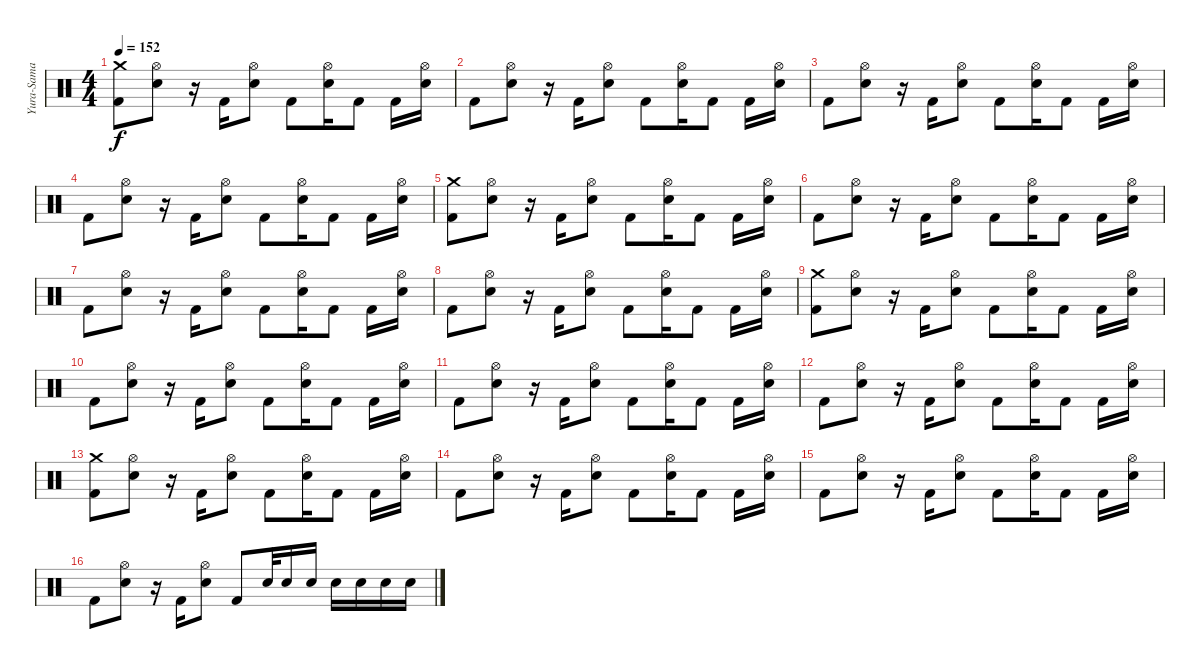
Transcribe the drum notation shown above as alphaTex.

\track ("Yura-Sama" "Yura-Sama") {instrument percussion}
\staff {score}
\articulation defaults
\ts (4 4)
\tempo 152
\clef neutral
\ks c
("Kick (hit) 2" "Crash medium (hit)").8{dy f} ("Electric Snare (hit)" "Hi-Hat (open)").8 r.16 "Kick (hit) 2".16 ("Electric Snare (hit)" "Hi-Hat (open)").8 "Kick (hit) 2".8 ("Electric Snare (hit)" "Hi-Hat (open)").16 "Kick (hit) 2".8 "Kick (hit) 2".16 ("Electric Snare (hit)" "Hi-Hat (open)").16 |
"Kick (hit) 2".8 ("Electric Snare (hit)" "Hi-Hat (open)").8 r.16 "Kick (hit) 2".16 ("Electric Snare (hit)" "Hi-Hat (open)").8 "Kick (hit) 2".8 ("Electric Snare (hit)" "Hi-Hat (open)").16 "Kick (hit) 2".8 "Kick (hit) 2".16 ("Electric Snare (hit)" "Hi-Hat (open)").16 |
"Kick (hit) 2".8 ("Electric Snare (hit)" "Hi-Hat (open)").8 r.16 "Kick (hit) 2".16 ("Electric Snare (hit)" "Hi-Hat (open)").8 "Kick (hit) 2".8 ("Electric Snare (hit)" "Hi-Hat (open)").16 "Kick (hit) 2".8 "Kick (hit) 2".16 ("Electric Snare (hit)" "Hi-Hat (open)").16 |
"Kick (hit) 2".8 ("Electric Snare (hit)" "Hi-Hat (open)").8 r.16 "Kick (hit) 2".16 ("Electric Snare (hit)" "Hi-Hat (open)").8 "Kick (hit) 2".8 ("Electric Snare (hit)" "Hi-Hat (open)").16 "Kick (hit) 2".8 "Kick (hit) 2".16 ("Electric Snare (hit)" "Hi-Hat (open)").16 |
("Kick (hit) 2" "Crash medium (hit)").8 ("Electric Snare (hit)" "Hi-Hat (open)").8 r.16 "Kick (hit) 2".16 ("Electric Snare (hit)" "Hi-Hat (open)").8 "Kick (hit) 2".8 ("Electric Snare (hit)" "Hi-Hat (open)").16 "Kick (hit) 2".8 "Kick (hit) 2".16 ("Electric Snare (hit)" "Hi-Hat (open)").16 |
"Kick (hit) 2".8 ("Electric Snare (hit)" "Hi-Hat (open)").8 r.16 "Kick (hit) 2".16 ("Electric Snare (hit)" "Hi-Hat (open)").8 "Kick (hit) 2".8 ("Electric Snare (hit)" "Hi-Hat (open)").16 "Kick (hit) 2".8 "Kick (hit) 2".16 ("Electric Snare (hit)" "Hi-Hat (open)").16 |
"Kick (hit) 2".8 ("Electric Snare (hit)" "Hi-Hat (open)").8 r.16 "Kick (hit) 2".16 ("Electric Snare (hit)" "Hi-Hat (open)").8 "Kick (hit) 2".8 ("Electric Snare (hit)" "Hi-Hat (open)").16 "Kick (hit) 2".8 "Kick (hit) 2".16 ("Electric Snare (hit)" "Hi-Hat (open)").16 |
"Kick (hit) 2".8 ("Electric Snare (hit)" "Hi-Hat (open)").8 r.16 "Kick (hit) 2".16 ("Electric Snare (hit)" "Hi-Hat (open)").8 "Kick (hit) 2".8 ("Electric Snare (hit)" "Hi-Hat (open)").16 "Kick (hit) 2".8 "Kick (hit) 2".16 ("Electric Snare (hit)" "Hi-Hat (open)").16 |
("Kick (hit) 2" "Crash medium (hit)").8 ("Electric Snare (hit)" "Hi-Hat (open)").8 r.16 "Kick (hit) 2".16 ("Electric Snare (hit)" "Hi-Hat (open)").8 "Kick (hit) 2".8 ("Electric Snare (hit)" "Hi-Hat (open)").16 "Kick (hit) 2".8 "Kick (hit) 2".16 ("Electric Snare (hit)" "Hi-Hat (open)").16 |
"Kick (hit) 2".8 ("Electric Snare (hit)" "Hi-Hat (open)").8 r.16 "Kick (hit) 2".16 ("Electric Snare (hit)" "Hi-Hat (open)").8 "Kick (hit) 2".8 ("Electric Snare (hit)" "Hi-Hat (open)").16 "Kick (hit) 2".8 "Kick (hit) 2".16 ("Electric Snare (hit)" "Hi-Hat (open)").16 |
"Kick (hit) 2".8 ("Electric Snare (hit)" "Hi-Hat (open)").8 r.16 "Kick (hit) 2".16 ("Electric Snare (hit)" "Hi-Hat (open)").8 "Kick (hit) 2".8 ("Electric Snare (hit)" "Hi-Hat (open)").16 "Kick (hit) 2".8 "Kick (hit) 2".16 ("Electric Snare (hit)" "Hi-Hat (open)").16 |
"Kick (hit) 2".8 ("Electric Snare (hit)" "Hi-Hat (open)").8 r.16 "Kick (hit) 2".16 ("Electric Snare (hit)" "Hi-Hat (open)").8 "Kick (hit) 2".8 ("Electric Snare (hit)" "Hi-Hat (open)").16 "Kick (hit) 2".8 "Kick (hit) 2".16 ("Electric Snare (hit)" "Hi-Hat (open)").16 |
("Kick (hit) 2" "Crash medium (hit)").8 ("Electric Snare (hit)" "Hi-Hat (open)").8 r.16 "Kick (hit) 2".16 ("Electric Snare (hit)" "Hi-Hat (open)").8 "Kick (hit) 2".8 ("Electric Snare (hit)" "Hi-Hat (open)").16 "Kick (hit) 2".8 "Kick (hit) 2".16 ("Electric Snare (hit)" "Hi-Hat (open)").16 |
"Kick (hit) 2".8 ("Electric Snare (hit)" "Hi-Hat (open)").8 r.16 "Kick (hit) 2".16 ("Electric Snare (hit)" "Hi-Hat (open)").8 "Kick (hit) 2".8 ("Electric Snare (hit)" "Hi-Hat (open)").16 "Kick (hit) 2".8 "Kick (hit) 2".16 ("Electric Snare (hit)" "Hi-Hat (open)").16 |
"Kick (hit) 2".8 ("Electric Snare (hit)" "Hi-Hat (open)").8 r.16 "Kick (hit) 2".16 ("Electric Snare (hit)" "Hi-Hat (open)").8 "Kick (hit) 2".8 ("Electric Snare (hit)" "Hi-Hat (open)").16 "Kick (hit) 2".8 "Kick (hit) 2".16 ("Electric Snare (hit)" "Hi-Hat (open)").16 |
"Kick (hit) 2".8 ("Electric Snare (hit)" "Hi-Hat (open)").8 r.16 "Kick (hit) 2".16 ("Electric Snare (hit)" "Hi-Hat (open)").8 "Kick (hit) 2".8 "Electric Snare (hit)".32 "Electric Snare (hit)".16 "Electric Snare (hit)".16 "Electric Snare (hit)".16 "Electric Snare (hit)".16 "Electric Snare (hit)".16 "Electric Snare (hit)".16
